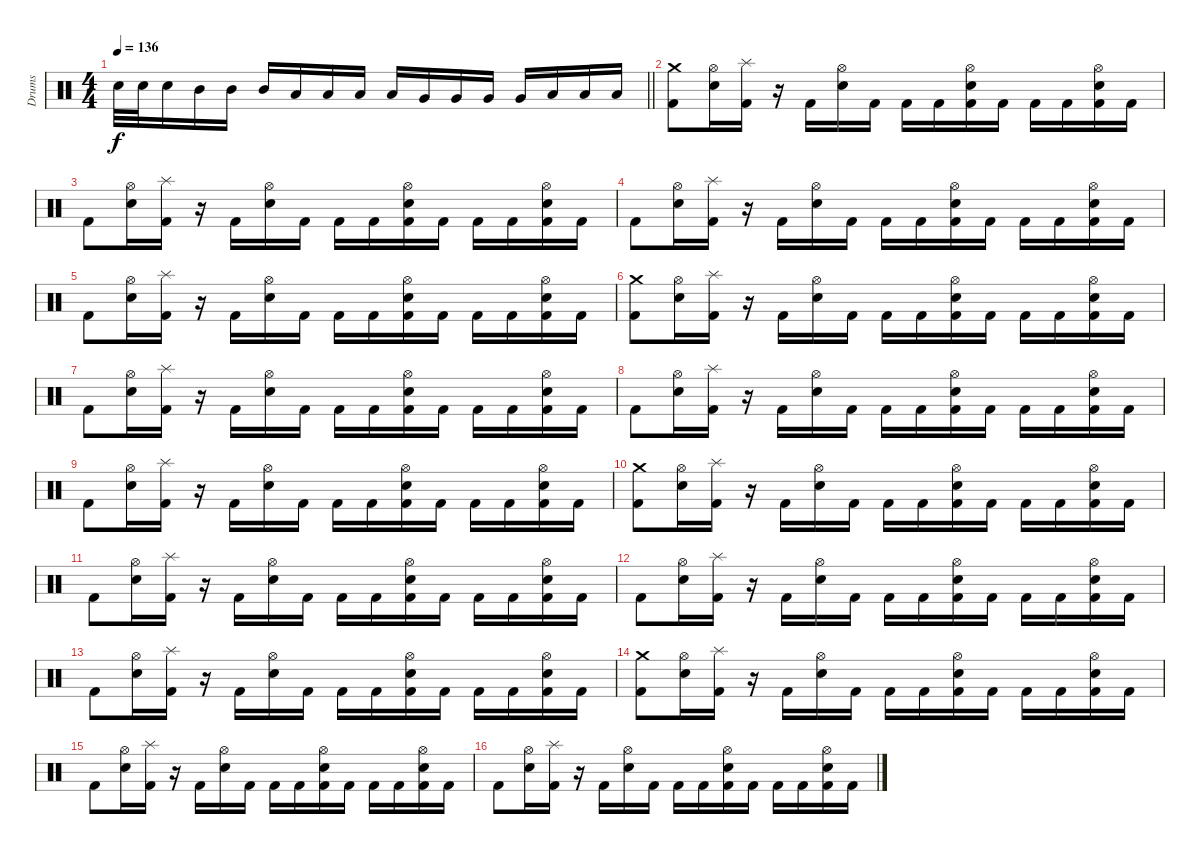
\track ("Drums" "Drums") {instrument percussion}
\staff {score}
\articulation defaults
\ts (4 4)
\tempo 136
\clef neutral
\barLineRight lightlight
\ks c "Electric Snare (hit)".32{dy f} "Electric Snare (hit)".32 "Electric Snare (hit)".16 "Mid Tom (hit)".16 "Mid Tom (hit)".16 "Mid Tom (hit)".16 "Low Tom (hit)".16 "Low Tom (hit)".16 "Low Tom (hit)".16 "Low Tom (hit)".16 "Very Low Tom (hit)".16 "Very Low Tom (hit)".16 "Very Low Tom (hit)".16 "Very Low Tom (hit)".16 "Low Floor Tom (hit)".16 "Low Floor Tom (hit)".16 "Low Floor Tom (hit)".16
|
("Crash medium (hit)" "Kick (hit) 2").8 ("Hi-Hat (open)" "Electric Snare (hit)").16 ("Splash (hit)" "Kick (hit) 2").16 r.16 "Kick (hit) 2".16 ("Hi-Hat (open)" "Electric Snare (hit)").16 "Kick (hit) 2".16 "Kick (hit) 2".16 "Kick (hit) 2".16 ("Hi-Hat (open)" "Electric Snare (hit)" "Kick (hit) 2").16 "Kick (hit) 2".16 "Kick (hit) 2".16 "Kick (hit) 2".16 ("Hi-Hat (open)" "Electric Snare (hit)" "Kick (hit) 2").16 "Kick (hit) 2".16 |
"Kick (hit) 2".8 ("Hi-Hat (open)" "Electric Snare (hit)").16 ("Splash (hit)" "Kick (hit) 2").16 r.16 "Kick (hit) 2".16 ("Hi-Hat (open)" "Electric Snare (hit)").16 "Kick (hit) 2".16 "Kick (hit) 2".16 "Kick (hit) 2".16 ("Hi-Hat (open)" "Electric Snare (hit)" "Kick (hit) 2").16 "Kick (hit) 2".16 "Kick (hit) 2".16 "Kick (hit) 2".16 ("Hi-Hat (open)" "Electric Snare (hit)" "Kick (hit) 2").16 "Kick (hit) 2".16 |
"Kick (hit) 2".8 ("Hi-Hat (open)" "Electric Snare (hit)").16 ("Splash (hit)" "Kick (hit) 2").16 r.16 "Kick (hit) 2".16 ("Hi-Hat (open)" "Electric Snare (hit)").16 "Kick (hit) 2".16 "Kick (hit) 2".16 "Kick (hit) 2".16 ("Hi-Hat (open)" "Electric Snare (hit)" "Kick (hit) 2").16 "Kick (hit) 2".16 "Kick (hit) 2".16 "Kick (hit) 2".16 ("Hi-Hat (open)" "Electric Snare (hit)" "Kick (hit) 2").16 "Kick (hit) 2".16 |
"Kick (hit) 2".8 ("Hi-Hat (open)" "Electric Snare (hit)").16 ("Splash (hit)" "Kick (hit) 2").16 r.16 "Kick (hit) 2".16 ("Hi-Hat (open)" "Electric Snare (hit)").16 "Kick (hit) 2".16 "Kick (hit) 2".16 "Kick (hit) 2".16 ("Hi-Hat (open)" "Electric Snare (hit)" "Kick (hit) 2").16 "Kick (hit) 2".16 "Kick (hit) 2".16 "Kick (hit) 2".16 ("Hi-Hat (open)" "Electric Snare (hit)" "Kick (hit) 2").16 "Kick (hit) 2".16 |
("Crash medium (hit)" "Kick (hit) 2").8 ("Hi-Hat (open)" "Electric Snare (hit)").16 ("Splash (hit)" "Kick (hit) 2").16 r.16 "Kick (hit) 2".16 ("Hi-Hat (open)" "Electric Snare (hit)").16 "Kick (hit) 2".16 "Kick (hit) 2".16 "Kick (hit) 2".16 ("Hi-Hat (open)" "Electric Snare (hit)" "Kick (hit) 2").16 "Kick (hit) 2".16 "Kick (hit) 2".16 "Kick (hit) 2".16 ("Hi-Hat (open)" "Electric Snare (hit)" "Kick (hit) 2").16 "Kick (hit) 2".16 |
"Kick (hit) 2".8 ("Hi-Hat (open)" "Electric Snare (hit)").16 ("Splash (hit)" "Kick (hit) 2").16 r.16 "Kick (hit) 2".16 ("Hi-Hat (open)" "Electric Snare (hit)").16 "Kick (hit) 2".16 "Kick (hit) 2".16 "Kick (hit) 2".16 ("Hi-Hat (open)" "Electric Snare (hit)" "Kick (hit) 2").16 "Kick (hit) 2".16 "Kick (hit) 2".16 "Kick (hit) 2".16 ("Hi-Hat (open)" "Electric Snare (hit)" "Kick (hit) 2").16 "Kick (hit) 2".16 |
"Kick (hit) 2".8 ("Hi-Hat (open)" "Electric Snare (hit)").16 ("Splash (hit)" "Kick (hit) 2").16 r.16 "Kick (hit) 2".16 ("Hi-Hat (open)" "Electric Snare (hit)").16 "Kick (hit) 2".16 "Kick (hit) 2".16 "Kick (hit) 2".16 ("Hi-Hat (open)" "Electric Snare (hit)" "Kick (hit) 2").16 "Kick (hit) 2".16 "Kick (hit) 2".16 "Kick (hit) 2".16 ("Hi-Hat (open)" "Electric Snare (hit)" "Kick (hit) 2").16 "Kick (hit) 2".16 |
"Kick (hit) 2".8 ("Hi-Hat (open)" "Electric Snare (hit)").16 ("Splash (hit)" "Kick (hit) 2").16 r.16 "Kick (hit) 2".16 ("Hi-Hat (open)" "Electric Snare (hit)").16 "Kick (hit) 2".16 "Kick (hit) 2".16 "Kick (hit) 2".16 ("Hi-Hat (open)" "Electric Snare (hit)" "Kick (hit) 2").16 "Kick (hit) 2".16 "Kick (hit) 2".16 "Kick (hit) 2".16 ("Hi-Hat (open)" "Electric Snare (hit)" "Kick (hit) 2").16 "Kick (hit) 2".16 |
("Crash medium (hit)" "Kick (hit) 2").8 ("Hi-Hat (open)" "Electric Snare (hit)").16 ("Splash (hit)" "Kick (hit) 2").16 r.16 "Kick (hit) 2".16 ("Hi-Hat (open)" "Electric Snare (hit)").16 "Kick (hit) 2".16 "Kick (hit) 2".16 "Kick (hit) 2".16 ("Hi-Hat (open)" "Electric Snare (hit)" "Kick (hit) 2").16 "Kick (hit) 2".16 "Kick (hit) 2".16 "Kick (hit) 2".16 ("Hi-Hat (open)" "Electric Snare (hit)" "Kick (hit) 2").16 "Kick (hit) 2".16 |
"Kick (hit) 2".8 ("Hi-Hat (open)" "Electric Snare (hit)").16 ("Splash (hit)" "Kick (hit) 2").16 r.16 "Kick (hit) 2".16 ("Hi-Hat (open)" "Electric Snare (hit)").16 "Kick (hit) 2".16 "Kick (hit) 2".16 "Kick (hit) 2".16 ("Hi-Hat (open)" "Electric Snare (hit)" "Kick (hit) 2").16 "Kick (hit) 2".16 "Kick (hit) 2".16 "Kick (hit) 2".16 ("Hi-Hat (open)" "Electric Snare (hit)" "Kick (hit) 2").16 "Kick (hit) 2".16 |
"Kick (hit) 2".8 ("Hi-Hat (open)" "Electric Snare (hit)").16 ("Splash (hit)" "Kick (hit) 2").16 r.16 "Kick (hit) 2".16 ("Hi-Hat (open)" "Electric Snare (hit)").16 "Kick (hit) 2".16 "Kick (hit) 2".16 "Kick (hit) 2".16 ("Hi-Hat (open)" "Electric Snare (hit)" "Kick (hit) 2").16 "Kick (hit) 2".16 "Kick (hit) 2".16 "Kick (hit) 2".16 ("Hi-Hat (open)" "Electric Snare (hit)" "Kick (hit) 2").16 "Kick (hit) 2".16 |
"Kick (hit) 2".8 ("Hi-Hat (open)" "Electric Snare (hit)").16 ("Splash (hit)" "Kick (hit) 2").16 r.16 "Kick (hit) 2".16 ("Hi-Hat (open)" "Electric Snare (hit)").16 "Kick (hit) 2".16 "Kick (hit) 2".16 "Kick (hit) 2".16 ("Hi-Hat (open)" "Electric Snare (hit)" "Kick (hit) 2").16 "Kick (hit) 2".16 "Kick (hit) 2".16 "Kick (hit) 2".16 ("Hi-Hat (open)" "Electric Snare (hit)" "Kick (hit) 2").16 "Kick (hit) 2".16 |
("Crash medium (hit)" "Kick (hit) 2").8 ("Hi-Hat (open)" "Electric Snare (hit)").16 ("Splash (hit)" "Kick (hit) 2").16 r.16 "Kick (hit) 2".16 ("Hi-Hat (open)" "Electric Snare (hit)").16 "Kick (hit) 2".16 "Kick (hit) 2".16 "Kick (hit) 2".16 ("Hi-Hat (open)" "Electric Snare (hit)" "Kick (hit) 2").16 "Kick (hit) 2".16 "Kick (hit) 2".16 "Kick (hit) 2".16 ("Hi-Hat (open)" "Electric Snare (hit)" "Kick (hit) 2").16 "Kick (hit) 2".16 |
"Kick (hit) 2".8 ("Hi-Hat (open)" "Electric Snare (hit)").16 ("Splash (hit)" "Kick (hit) 2").16 r.16 "Kick (hit) 2".16 ("Hi-Hat (open)" "Electric Snare (hit)").16 "Kick (hit) 2".16 "Kick (hit) 2".16 "Kick (hit) 2".16 ("Hi-Hat (open)" "Electric Snare (hit)" "Kick (hit) 2").16 "Kick (hit) 2".16 "Kick (hit) 2".16 "Kick (hit) 2".16 ("Hi-Hat (open)" "Electric Snare (hit)" "Kick (hit) 2").16 "Kick (hit) 2".16 |
"Kick (hit) 2".8 ("Hi-Hat (open)" "Electric Snare (hit)").16 ("Splash (hit)" "Kick (hit) 2").16 r.16 "Kick (hit) 2".16 ("Hi-Hat (open)" "Electric Snare (hit)").16 "Kick (hit) 2".16 "Kick (hit) 2".16 "Kick (hit) 2".16 ("Hi-Hat (open)" "Electric Snare (hit)" "Kick (hit) 2").16 "Kick (hit) 2".16 "Kick (hit) 2".16 "Kick (hit) 2".16 ("Hi-Hat (open)" "Electric Snare (hit)" "Kick (hit) 2").16 "Kick (hit) 2".16
